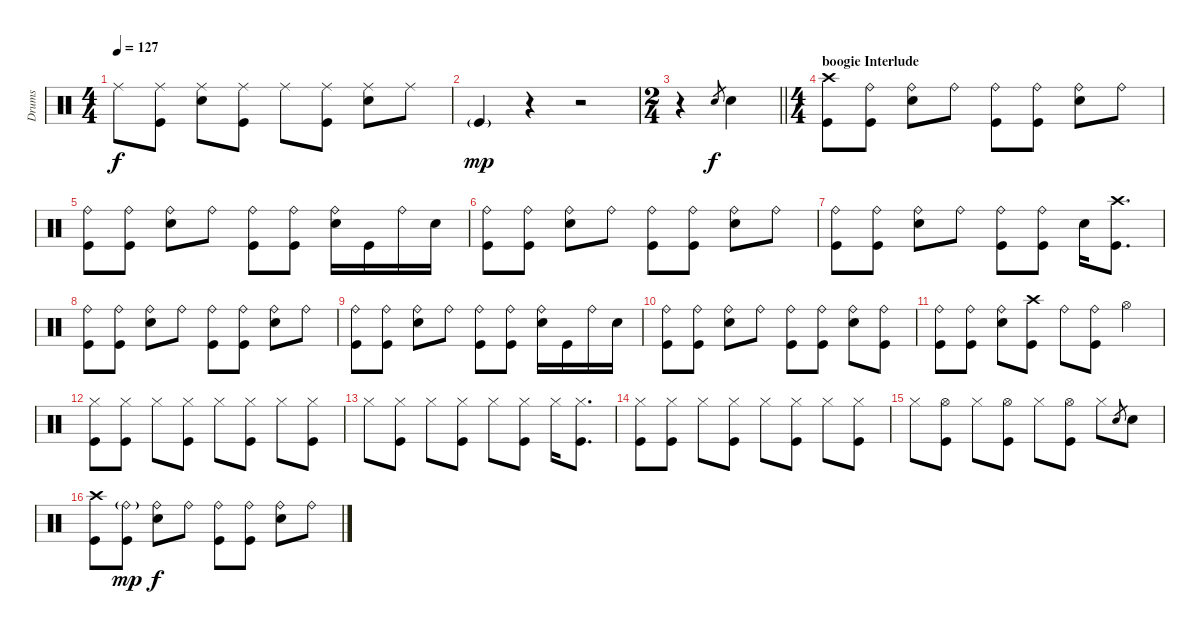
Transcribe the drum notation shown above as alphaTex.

\track ("Drums" "Drums") {instrument percussion}
\staff {score}
\articulation defaults
\ts (4 4)
\tempo 127
\clef neutral
\ks c "Ride (middle)".8{dy f}
("Ride (middle)" "Kick (hit)").8 ("Ride (middle)" "Snare (hit) 2").8 ("Ride (middle)" "Kick (hit)").8 "Ride (middle)".8 ("Ride (middle)" "Kick (hit)").8 ("Ride (middle)" "Snare (hit) 2").8 "Ride (middle)".8 |
"Kick (hit)"{g}.4{dy mp} r.4 r.2 |
\ts (2 4)
\barLineRight lightlight
r.4 "Snare (hit) 2".8{gr dy f} "Snare (hit) 2".4 |
\ts (4 4)
\section ("" "boogie Interlude")
("Crash high (hit)" "Kick (hit)").8 ("Ride (bell)" "Kick (hit)").8 ("Ride (bell)" "Snare (hit) 2").8 "Ride (bell)".8 ("Ride (bell)" "Kick (hit)").8 ("Ride (bell)" "Kick (hit)").8 ("Ride (bell)" "Snare (hit) 2").8 "Ride (bell)".8 |
("Kick (hit)" "Ride (bell)").8 ("Kick (hit)" "Ride (bell)").8 ("Snare (hit) 2" "Ride (bell)").8 "Ride (bell)".8 ("Kick (hit)" "Ride (bell)").8 ("Kick (hit)" "Ride (bell)").8 ("Snare (hit) 2" "Ride (bell)").16 "Kick (hit)".16 "Ride (bell)".16 "Snare (hit) 2".16 |
("Ride (bell)" "Kick (hit)").8 ("Ride (bell)" "Kick (hit)").8 ("Ride (bell)" "Snare (hit) 2").8 "Ride (bell)".8 ("Ride (bell)" "Kick (hit)").8 ("Ride (bell)" "Kick (hit)").8 ("Ride (bell)" "Snare (hit) 2").8 "Ride (bell)".8 |
("Kick (hit)" "Ride (bell)").8 ("Kick (hit)" "Ride (bell)").8 ("Snare (hit) 2" "Ride (bell)").8 "Ride (bell)".8 ("Kick (hit)" "Ride (bell)").8 ("Kick (hit)" "Ride (bell)").8 "Snare (hit) 2".16 ("Crash high (hit)" "Kick (hit)").8{d} |
("Ride (bell)" "Kick (hit)").8 ("Ride (bell)" "Kick (hit)").8 ("Ride (bell)" "Snare (hit) 2").8 "Ride (bell)".8 ("Ride (bell)" "Kick (hit)").8 ("Ride (bell)" "Kick (hit)").8 ("Ride (bell)" "Snare (hit) 2").8 "Ride (bell)".8 |
("Kick (hit)" "Ride (bell)").8 ("Kick (hit)" "Ride (bell)").8 ("Snare (hit) 2" "Ride (bell)").8 "Ride (bell)".8 ("Kick (hit)" "Ride (bell)").8 ("Kick (hit)" "Ride (bell)").8 ("Snare (hit) 2" "Ride (bell)").16 "Kick (hit)".16 "Ride (bell)".16 "Snare (hit) 2".16 |
("Ride (bell)" "Kick (hit)").8 ("Ride (bell)" "Kick (hit)").8 ("Ride (bell)" "Snare (hit) 2").8 "Ride (bell)".8 ("Ride (bell)" "Kick (hit)").8 ("Ride (bell)" "Kick (hit)").8 ("Ride (bell)" "Snare (hit) 2").8 ("Ride (bell)" "Kick (hit)").8 |
("Ride (bell)" "Kick (hit)").8 ("Kick (hit)" "Ride (bell)").8 ("Ride (bell)" "Snare (hit) 2").8 ("Kick (hit)" "Crash high (hit)").8 "Ride (bell)".8 ("Ride (bell)" "Kick (hit)").8 "Hi-Hat (open)".4 |
("Hi-Hat (closed)" "Kick (hit)").8 ("Hi-Hat (closed)" "Kick (hit)").8 "Hi-Hat (closed)".8 ("Hi-Hat (closed)" "Kick (hit)").8 "Hi-Hat (closed)".8 ("Hi-Hat (closed)" "Kick (hit)").8 "Hi-Hat (closed)".8 ("Hi-Hat (closed)" "Kick (hit)").8 |
"Hi-Hat (closed)".8 ("Kick (hit)" "Hi-Hat (closed)").8 "Hi-Hat (closed)".8 ("Kick (hit)" "Hi-Hat (closed)").8 "Hi-Hat (closed)".8 ("Kick (hit)" "Hi-Hat (closed)").8 "Hi-Hat (closed)".16 ("Kick (hit)" "Hi-Hat (closed)").8{d} |
("Hi-Hat (closed)" "Kick (hit)").8 ("Hi-Hat (closed)" "Kick (hit)").8 "Hi-Hat (closed)".8 ("Hi-Hat (closed)" "Kick (hit)").8 "Hi-Hat (closed)".8 ("Hi-Hat (closed)" "Kick (hit)").8 "Hi-Hat (closed)".8 ("Hi-Hat (closed)" "Kick (hit)").8 |
"Hi-Hat (closed)".8 ("Kick (hit)" "Hi-Hat (open)").8 "Hi-Hat (closed)".8 ("Kick (hit)" "Hi-Hat (open)").8 "Hi-Hat (closed)".8 ("Kick (hit)" "Hi-Hat (open)").8 "Hi-Hat (closed)".8 "Snare (hit) 2".8{gr} "Snare (hit) 2".8 |
("Crash high (hit)" "Kick (hit)").8 ("Ride (bell)"{g} "Kick (hit)").8{dy mp} ("Ride (bell)" "Snare (hit) 2").8{dy f} "Ride (bell)".8 ("Ride (bell)" "Kick (hit)").8 ("Ride (bell)" "Kick (hit)").8 ("Ride (bell)" "Snare (hit) 2").8 "Ride (bell)".8
